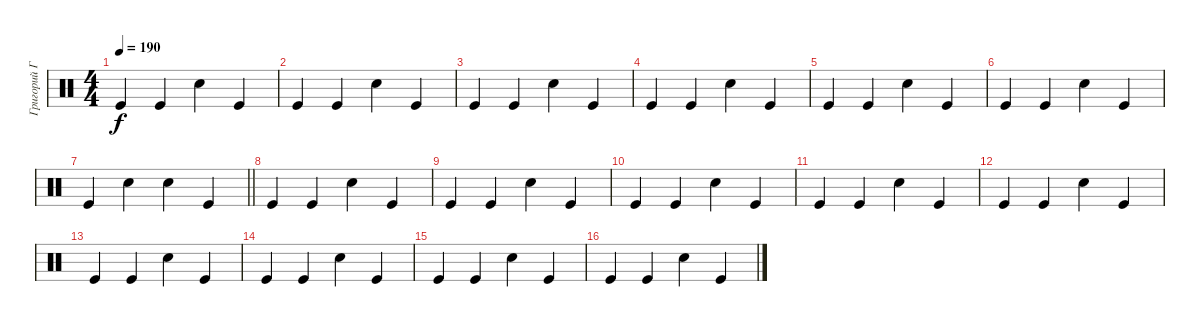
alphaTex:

\track ("Григорий Габерман" "Григорий Г") {instrument percussion}
\staff {score}
\articulation defaults
\ts (4 4)
\tempo 190
\clef neutral
\ks c "Kick (hit)".4{dy f} "Kick (hit)".4 "Snare (hit) 2".4 "Kick (hit)".4
|
"Kick (hit)".4 "Kick (hit)".4 "Snare (hit) 2".4 "Kick (hit)".4 |
"Kick (hit)".4 "Kick (hit)".4 "Snare (hit) 2".4 "Kick (hit)".4 |
"Kick (hit)".4 "Kick (hit)".4 "Snare (hit) 2".4 "Kick (hit)".4 |
"Kick (hit)".4 "Kick (hit)".4 "Snare (hit) 2".4 "Kick (hit)".4 |
"Kick (hit)".4 "Kick (hit)".4 "Snare (hit) 2".4 "Kick (hit)".4 |
\barLineRight lightlight "Kick (hit)".4 "Snare (hit) 2".4 "Snare (hit) 2".4 "Kick (hit)".4
|
"Kick (hit)".4 "Kick (hit)".4 "Snare (hit) 2".4 "Kick (hit)".4 |
"Kick (hit)".4 "Kick (hit)".4 "Snare (hit) 2".4 "Kick (hit)".4 |
"Kick (hit)".4 "Kick (hit)".4 "Snare (hit) 2".4 "Kick (hit)".4 |
"Kick (hit)".4 "Kick (hit)".4 "Snare (hit) 2".4 "Kick (hit)".4 |
"Kick (hit)".4 "Kick (hit)".4 "Snare (hit) 2".4 "Kick (hit)".4 |
"Kick (hit)".4 "Kick (hit)".4 "Snare (hit) 2".4 "Kick (hit)".4 |
"Kick (hit)".4 "Kick (hit)".4 "Snare (hit) 2".4 "Kick (hit)".4 |
"Kick (hit)".4 "Kick (hit)".4 "Snare (hit) 2".4 "Kick (hit)".4 |
"Kick (hit)".4 "Kick (hit)".4 "Snare (hit) 2".4 "Kick (hit)".4
